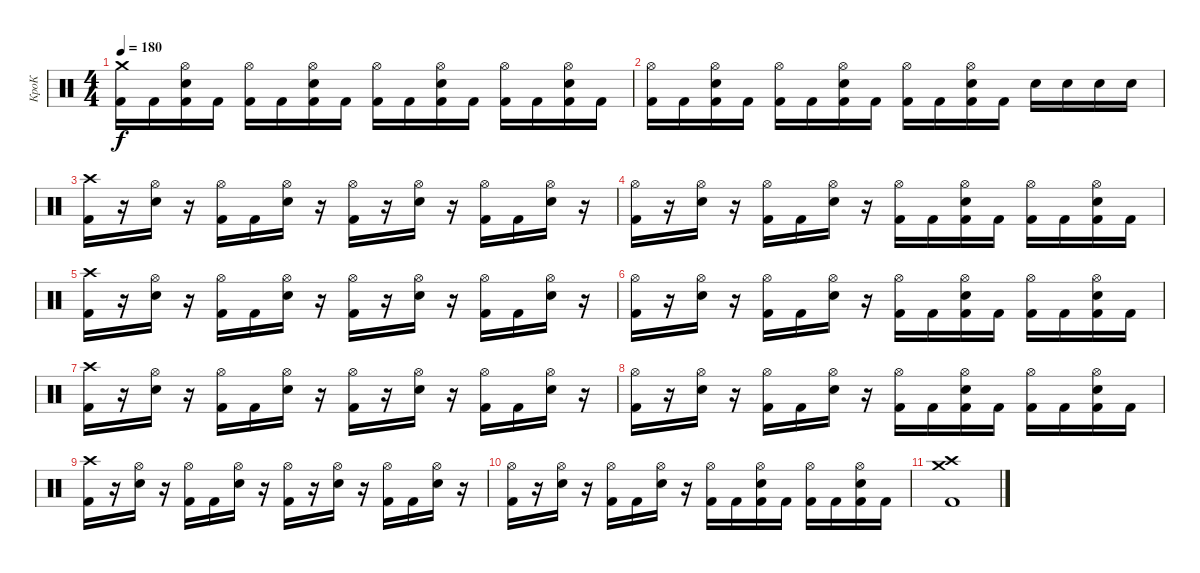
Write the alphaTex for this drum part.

\track ("КроК" "КроК") {instrument percussion}
\staff {score}
\articulation defaults
\ts (4 4)
\tempo 180
\clef neutral
\ks c
("Crash medium (hit)" "Kick (hit) 2").16{dy f} "Kick (hit) 2".16 ("Hi-Hat (open)" "Electric Snare (hit)" "Kick (hit) 2").16 "Kick (hit) 2".16 ("Hi-Hat (open)" "Kick (hit) 2").16 "Kick (hit) 2".16 ("Hi-Hat (open)" "Electric Snare (hit)" "Kick (hit) 2").16 "Kick (hit) 2".16 ("Hi-Hat (open)" "Kick (hit) 2").16 "Kick (hit) 2".16 ("Hi-Hat (open)" "Electric Snare (hit)" "Kick (hit) 2").16 "Kick (hit) 2".16 ("Hi-Hat (open)" "Kick (hit) 2").16 "Kick (hit) 2".16 ("Hi-Hat (open)" "Electric Snare (hit)" "Kick (hit) 2").16 "Kick (hit) 2".16 |
("Hi-Hat (open)" "Kick (hit) 2").16 "Kick (hit) 2".16 ("Hi-Hat (open)" "Electric Snare (hit)" "Kick (hit) 2").16 "Kick (hit) 2".16 ("Hi-Hat (open)" "Kick (hit) 2").16 "Kick (hit) 2".16 ("Hi-Hat (open)" "Electric Snare (hit)" "Kick (hit) 2").16 "Kick (hit) 2".16 ("Hi-Hat (open)" "Kick (hit) 2").16 "Kick (hit) 2".16 ("Hi-Hat (open)" "Electric Snare (hit)" "Kick (hit) 2").16 "Kick (hit) 2".16 "Electric Snare (hit)".16 "Electric Snare (hit)".16 "Electric Snare (hit)".16 "Electric Snare (hit)".16 |
("Crash high (hit)" "Kick (hit) 2").16 r.16 ("Hi-Hat (open)" "Electric Snare (hit)").16 r.16 ("Hi-Hat (open)" "Kick (hit) 2").16 "Kick (hit) 2".16 ("Hi-Hat (open)" "Electric Snare (hit)").16 r.16 ("Hi-Hat (open)" "Kick (hit) 2").16 r.16 ("Hi-Hat (open)" "Electric Snare (hit)").16 r.16 ("Hi-Hat (open)" "Kick (hit) 2").16 "Kick (hit) 2".16 ("Hi-Hat (open)" "Electric Snare (hit)").16 r.16 |
("Hi-Hat (open)" "Kick (hit) 2").16 r.16 ("Hi-Hat (open)" "Electric Snare (hit)").16 r.16 ("Hi-Hat (open)" "Kick (hit) 2").16 "Kick (hit) 2".16 ("Hi-Hat (open)" "Electric Snare (hit)").16 r.16 ("Hi-Hat (open)" "Kick (hit) 2").16 "Kick (hit) 2".16 ("Hi-Hat (open)" "Electric Snare (hit)" "Kick (hit) 2").16 "Kick (hit) 2".16 ("Hi-Hat (open)" "Kick (hit) 2").16 "Kick (hit) 2".16 ("Hi-Hat (open)" "Electric Snare (hit)" "Kick (hit) 2").16 "Kick (hit) 2".16 |
("Crash high (hit)" "Kick (hit) 2").16 r.16 ("Hi-Hat (open)" "Electric Snare (hit)").16 r.16 ("Hi-Hat (open)" "Kick (hit) 2").16 "Kick (hit) 2".16 ("Hi-Hat (open)" "Electric Snare (hit)").16 r.16 ("Hi-Hat (open)" "Kick (hit) 2").16 r.16 ("Hi-Hat (open)" "Electric Snare (hit)").16 r.16 ("Hi-Hat (open)" "Kick (hit) 2").16 "Kick (hit) 2".16 ("Hi-Hat (open)" "Electric Snare (hit)").16 r.16 |
("Hi-Hat (open)" "Kick (hit) 2").16 r.16 ("Hi-Hat (open)" "Electric Snare (hit)").16 r.16 ("Hi-Hat (open)" "Kick (hit) 2").16 "Kick (hit) 2".16 ("Hi-Hat (open)" "Electric Snare (hit)").16 r.16 ("Hi-Hat (open)" "Kick (hit) 2").16 "Kick (hit) 2".16 ("Hi-Hat (open)" "Electric Snare (hit)" "Kick (hit) 2").16 "Kick (hit) 2".16 ("Hi-Hat (open)" "Kick (hit) 2").16 "Kick (hit) 2".16 ("Hi-Hat (open)" "Electric Snare (hit)" "Kick (hit) 2").16 "Kick (hit) 2".16 |
("Crash high (hit)" "Kick (hit) 2").16 r.16 ("Hi-Hat (open)" "Electric Snare (hit)").16 r.16 ("Hi-Hat (open)" "Kick (hit) 2").16 "Kick (hit) 2".16 ("Hi-Hat (open)" "Electric Snare (hit)").16 r.16 ("Hi-Hat (open)" "Kick (hit) 2").16 r.16 ("Hi-Hat (open)" "Electric Snare (hit)").16 r.16 ("Hi-Hat (open)" "Kick (hit) 2").16 "Kick (hit) 2".16 ("Hi-Hat (open)" "Electric Snare (hit)").16 r.16 |
("Hi-Hat (open)" "Kick (hit) 2").16 r.16 ("Hi-Hat (open)" "Electric Snare (hit)").16 r.16 ("Hi-Hat (open)" "Kick (hit) 2").16 "Kick (hit) 2".16 ("Hi-Hat (open)" "Electric Snare (hit)").16 r.16 ("Hi-Hat (open)" "Kick (hit) 2").16 "Kick (hit) 2".16 ("Hi-Hat (open)" "Electric Snare (hit)" "Kick (hit) 2").16 "Kick (hit) 2".16 ("Hi-Hat (open)" "Kick (hit) 2").16 "Kick (hit) 2".16 ("Hi-Hat (open)" "Electric Snare (hit)" "Kick (hit) 2").16 "Kick (hit) 2".16 |
("Crash high (hit)" "Kick (hit) 2").16 r.16 ("Hi-Hat (open)" "Electric Snare (hit)").16 r.16 ("Hi-Hat (open)" "Kick (hit) 2").16 "Kick (hit) 2".16 ("Hi-Hat (open)" "Electric Snare (hit)").16 r.16 ("Hi-Hat (open)" "Kick (hit) 2").16 r.16 ("Hi-Hat (open)" "Electric Snare (hit)").16 r.16 ("Hi-Hat (open)" "Kick (hit) 2").16 "Kick (hit) 2".16 ("Hi-Hat (open)" "Electric Snare (hit)").16 r.16 |
("Hi-Hat (open)" "Kick (hit) 2").16 r.16 ("Hi-Hat (open)" "Electric Snare (hit)").16 r.16 ("Hi-Hat (open)" "Kick (hit) 2").16 "Kick (hit) 2".16 ("Hi-Hat (open)" "Electric Snare (hit)").16 r.16 ("Hi-Hat (open)" "Kick (hit) 2").16 "Kick (hit) 2".16 ("Hi-Hat (open)" "Electric Snare (hit)" "Kick (hit) 2").16 "Kick (hit) 2".16 ("Hi-Hat (open)" "Kick (hit) 2").16 "Kick (hit) 2".16 ("Hi-Hat (open)" "Electric Snare (hit)" "Kick (hit) 2").16 "Kick (hit) 2".16 |
("Crash high (hit)" "Crash medium (hit)" "Kick (hit) 2").1
